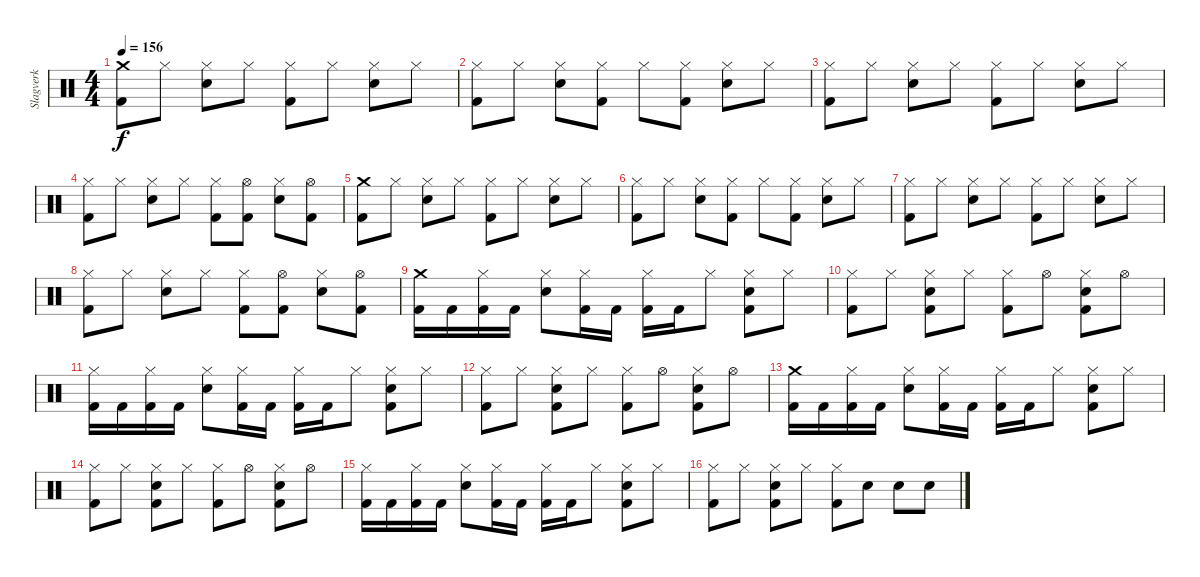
\track ("Slagverk" "Slagverk") {instrument percussion}
\staff {score}
\articulation defaults
\ts (4 4)
\tempo 156
\clef neutral
\ks c
("Crash medium (hit)" "Kick (hit) 2").8{dy f} "Hi-Hat (closed)".8 ("Hi-Hat (closed)" "Snare (hit) 2").8 "Hi-Hat (closed)".8 ("Hi-Hat (closed)" "Kick (hit) 2").8 "Hi-Hat (closed)".8 ("Hi-Hat (closed)" "Snare (hit) 2").8 "Hi-Hat (closed)".8 |
("Hi-Hat (closed)" "Kick (hit) 2").8 "Hi-Hat (closed)".8 ("Hi-Hat (closed)" "Snare (hit) 2").8 ("Hi-Hat (closed)" "Kick (hit) 2").8 "Hi-Hat (closed)".8 ("Hi-Hat (closed)" "Kick (hit) 2").8 ("Hi-Hat (closed)" "Snare (hit) 2").8 "Hi-Hat (closed)".8 |
("Hi-Hat (closed)" "Kick (hit) 2").8 "Hi-Hat (closed)".8 ("Hi-Hat (closed)" "Snare (hit) 2").8 "Hi-Hat (closed)".8 ("Hi-Hat (closed)" "Kick (hit) 2").8 "Hi-Hat (closed)".8 ("Hi-Hat (closed)" "Snare (hit) 2").8 "Hi-Hat (closed)".8 |
("Hi-Hat (closed)" "Kick (hit) 2").8 "Hi-Hat (closed)".8 ("Hi-Hat (closed)" "Snare (hit) 2").8 "Hi-Hat (closed)".8 ("Hi-Hat (closed)" "Kick (hit) 2").8 ("Hi-Hat (open)" "Kick (hit) 2").8 ("Hi-Hat (closed)" "Snare (hit) 2").8 ("Hi-Hat (open)" "Kick (hit) 2").8 |
("Crash medium (hit)" "Kick (hit) 2").8 "Hi-Hat (closed)".8 ("Hi-Hat (closed)" "Snare (hit) 2").8 "Hi-Hat (closed)".8 ("Hi-Hat (closed)" "Kick (hit) 2").8 "Hi-Hat (closed)".8 ("Hi-Hat (closed)" "Snare (hit) 2").8 "Hi-Hat (closed)".8 |
("Hi-Hat (closed)" "Kick (hit) 2").8 "Hi-Hat (closed)".8 ("Hi-Hat (closed)" "Snare (hit) 2").8 ("Hi-Hat (closed)" "Kick (hit) 2").8 "Hi-Hat (closed)".8 ("Hi-Hat (closed)" "Kick (hit) 2").8 ("Hi-Hat (closed)" "Snare (hit) 2").8 "Hi-Hat (closed)".8 |
("Hi-Hat (closed)" "Kick (hit) 2").8 "Hi-Hat (closed)".8 ("Hi-Hat (closed)" "Snare (hit) 2").8 "Hi-Hat (closed)".8 ("Hi-Hat (closed)" "Kick (hit) 2").8 "Hi-Hat (closed)".8 ("Hi-Hat (closed)" "Snare (hit) 2").8 "Hi-Hat (closed)".8 |
("Hi-Hat (closed)" "Kick (hit) 2").8 "Hi-Hat (closed)".8 ("Hi-Hat (closed)" "Snare (hit) 2").8 "Hi-Hat (closed)".8 ("Hi-Hat (closed)" "Kick (hit) 2").8 ("Hi-Hat (open)" "Kick (hit) 2").8 ("Hi-Hat (closed)" "Snare (hit) 2").8 ("Hi-Hat (open)" "Kick (hit) 2").8 |
("Crash medium (hit)" "Kick (hit) 2").16 "Kick (hit) 2".16 ("Hi-Hat (closed)" "Kick (hit) 2").16 "Kick (hit) 2".16 ("Hi-Hat (closed)" "Snare (hit) 2").8 ("Hi-Hat (closed)" "Kick (hit) 2").16 "Kick (hit) 2".16 ("Hi-Hat (closed)" "Kick (hit) 2").16 "Kick (hit) 2".16 "Hi-Hat (closed)".8 ("Hi-Hat (closed)" "Snare (hit) 2" "Kick (hit) 2").8 "Hi-Hat (closed)".8 |
("Hi-Hat (closed)" "Kick (hit) 2").8 "Hi-Hat (closed)".8 ("Hi-Hat (closed)" "Snare (hit) 2" "Kick (hit) 2").8 "Hi-Hat (closed)".8 ("Hi-Hat (closed)" "Kick (hit) 2").8 "Hi-Hat (open)".8 ("Hi-Hat (closed)" "Snare (hit) 2" "Kick (hit) 2").8 "Hi-Hat (open)".8 |
("Hi-Hat (closed)" "Kick (hit) 2").16 "Kick (hit) 2".16 ("Hi-Hat (closed)" "Kick (hit) 2").16 "Kick (hit) 2".16 ("Hi-Hat (closed)" "Snare (hit) 2").8 ("Hi-Hat (closed)" "Kick (hit) 2").16 "Kick (hit) 2".16 ("Hi-Hat (closed)" "Kick (hit) 2").16 "Kick (hit) 2".16 "Hi-Hat (closed)".8 ("Hi-Hat (closed)" "Snare (hit) 2" "Kick (hit) 2").8 "Hi-Hat (closed)".8 |
("Hi-Hat (closed)" "Kick (hit) 2").8 "Hi-Hat (closed)".8 ("Hi-Hat (closed)" "Snare (hit) 2" "Kick (hit) 2").8 "Hi-Hat (closed)".8 ("Hi-Hat (closed)" "Kick (hit) 2").8 "Hi-Hat (open)".8 ("Hi-Hat (closed)" "Snare (hit) 2" "Kick (hit) 2").8 "Hi-Hat (open)".8 |
("Crash medium (hit)" "Kick (hit) 2").16 "Kick (hit) 2".16 ("Hi-Hat (closed)" "Kick (hit) 2").16 "Kick (hit) 2".16 ("Hi-Hat (closed)" "Snare (hit) 2").8 ("Hi-Hat (closed)" "Kick (hit) 2").16 "Kick (hit) 2".16 ("Hi-Hat (closed)" "Kick (hit) 2").16 "Kick (hit) 2".16 "Hi-Hat (closed)".8 ("Hi-Hat (closed)" "Snare (hit) 2" "Kick (hit) 2").8 "Hi-Hat (closed)".8 |
("Hi-Hat (closed)" "Kick (hit) 2").8 "Hi-Hat (closed)".8 ("Hi-Hat (closed)" "Snare (hit) 2" "Kick (hit) 2").8 "Hi-Hat (closed)".8 ("Hi-Hat (closed)" "Kick (hit) 2").8 "Hi-Hat (open)".8 ("Hi-Hat (closed)" "Snare (hit) 2" "Kick (hit) 2").8 "Hi-Hat (open)".8 |
("Hi-Hat (closed)" "Kick (hit) 2").16 "Kick (hit) 2".16 ("Hi-Hat (closed)" "Kick (hit) 2").16 "Kick (hit) 2".16 ("Hi-Hat (closed)" "Snare (hit) 2").8 ("Hi-Hat (closed)" "Kick (hit) 2").16 "Kick (hit) 2".16 ("Hi-Hat (closed)" "Kick (hit) 2").16 "Kick (hit) 2".16 "Hi-Hat (closed)".8 ("Hi-Hat (closed)" "Snare (hit) 2" "Kick (hit) 2").8 "Hi-Hat (closed)".8 |
("Hi-Hat (closed)" "Kick (hit) 2").8 "Hi-Hat (closed)".8 ("Hi-Hat (closed)" "Snare (hit) 2" "Kick (hit) 2").8 "Hi-Hat (closed)".8 ("Hi-Hat (closed)" "Kick (hit) 2").8 "Snare (hit) 2".8 "Snare (hit) 2".8 "Snare (hit) 2".8
